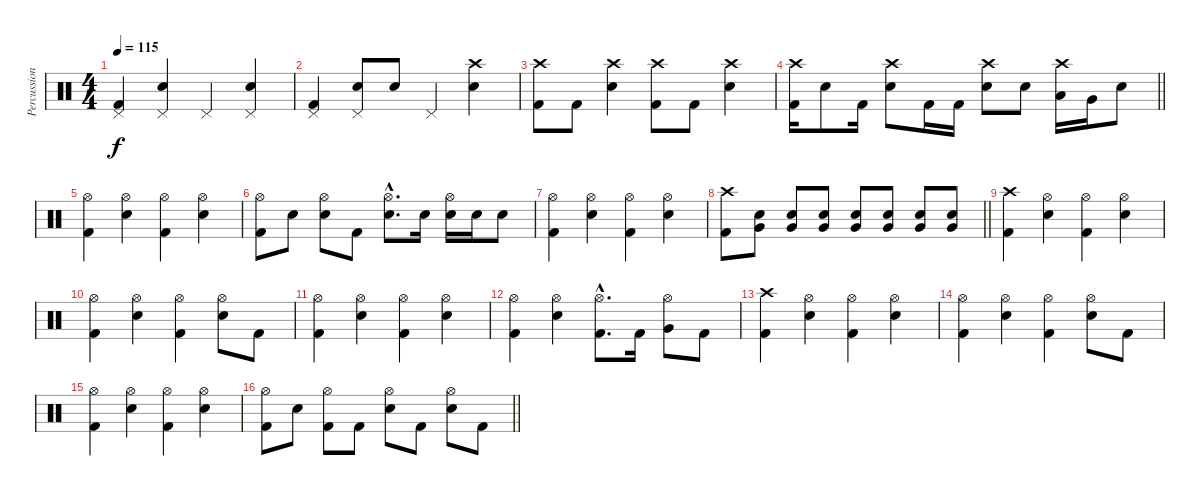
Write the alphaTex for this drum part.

\track ("Percussion" "Percussion") {instrument percussion}
\staff {score}
\articulation defaults
\ts (4 4)
\tempo 115
\clef neutral
\ks c
("Pedal Hi-Hat (hit)" "Kick (hit) 2").4{dy f} ("Pedal Hi-Hat (hit)" "Snare (hit) 2").4 "Pedal Hi-Hat (hit)".4 ("Pedal Hi-Hat (hit)" "Snare (hit) 2").4 |
("Pedal Hi-Hat (hit)" "Kick (hit) 2").4 ("Pedal Hi-Hat (hit)" "Snare (hit) 2").8 "Snare (hit) 2".8 "Pedal Hi-Hat (hit)".4 ("Crash high (hit)" "Snare (hit) 2").4 |
("Crash high (hit)" "Kick (hit) 2").8 "Kick (hit) 2".8 ("Crash high (hit)" "Snare (hit) 2").4 ("Crash high (hit)" "Kick (hit) 2").8 "Kick (hit) 2".8 ("Crash high (hit)" "Snare (hit) 2").4 |
\barLineRight lightlight
("Crash high (hit)" "Kick (hit) 2").16 "Snare (hit) 2".8 "Kick (hit) 2".16 ("Crash high (hit)" "Snare (hit) 2").8 "Kick (hit) 2".16 "Kick (hit) 2".16 ("Crash high (hit)" "Snare (hit) 2").8 "Snare (hit) 2".8 ("Crash high (hit)" "Low Tom (hit)").16 "Very Low Tom (hit)".16 "Snare (hit) 2".8 |
("Hi-Hat (open)" "Kick (hit) 2").4 ("Hi-Hat (open)" "Snare (hit) 2").4 ("Hi-Hat (open)" "Kick (hit) 2").4 ("Hi-Hat (open)" "Snare (hit) 2").4 |
("Hi-Hat (open)" "Kick (hit) 2").8 "Snare (hit) 2".8 ("Hi-Hat (open)" "Snare (hit) 2").8 "Kick (hit) 2".8 ("Hi-Hat (open)"{hac} "Snare (hit) 2"{hac}).8{d} "Snare (hit) 2".16 ("Hi-Hat (open)" "Snare (hit) 2").16 "Snare (hit) 2".16 "Snare (hit) 2".8 |
("Hi-Hat (open)" "Kick (hit) 2").4 ("Hi-Hat (open)" "Snare (hit) 2").4 ("Hi-Hat (open)" "Kick (hit) 2").4 ("Hi-Hat (open)" "Snare (hit) 2").4 |
\barLineRight lightlight
("Crash high (hit)" "Kick (hit) 2").8 ("Very Low Tom (hit)" "Snare (hit) 2").8 ("Very Low Tom (hit)" "Snare (hit) 2").8 ("Very Low Tom (hit)" "Snare (hit) 2").8 ("Very Low Tom (hit)" "Snare (hit) 2").8 ("Very Low Tom (hit)" "Snare (hit) 2").8 ("Very Low Tom (hit)" "Snare (hit) 2").8 ("Very Low Tom (hit)" "Snare (hit) 2").8 |
("Crash high (hit)" "Kick (hit) 2").4 ("Hi-Hat (open)" "Snare (hit) 2").4 ("Hi-Hat (open)" "Kick (hit) 2").4 ("Hi-Hat (open)" "Snare (hit) 2").4 |
("Hi-Hat (open)" "Kick (hit) 2").4 ("Hi-Hat (open)" "Snare (hit) 2").4 ("Hi-Hat (open)" "Kick (hit) 2").4 ("Hi-Hat (open)" "Snare (hit) 2").8 "Kick (hit) 2".8 |
("Hi-Hat (open)" "Kick (hit) 2").4 ("Hi-Hat (open)" "Snare (hit) 2").4 ("Hi-Hat (open)" "Kick (hit) 2").4 ("Hi-Hat (open)" "Snare (hit) 2").4 |
("Hi-Hat (open)" "Kick (hit) 2").4 ("Hi-Hat (open)" "Snare (hit) 2").4 ("Hi-Hat (open)"{hac} "Kick (hit) 2"{hac}).8{d} "Kick (hit) 2".16 ("Hi-Hat (open)" "Very Low Tom (hit)").8 "Kick (hit) 2".8 |
("Crash high (hit)" "Kick (hit) 2").4 ("Hi-Hat (open)" "Snare (hit) 2").4 ("Hi-Hat (open)" "Kick (hit) 2").4 ("Hi-Hat (open)" "Snare (hit) 2").4 |
("Hi-Hat (open)" "Kick (hit) 2").4 ("Hi-Hat (open)" "Snare (hit) 2").4 ("Hi-Hat (open)" "Kick (hit) 2").4 ("Hi-Hat (open)" "Snare (hit) 2").8 "Kick (hit) 2".8 |
("Hi-Hat (open)" "Kick (hit) 2").4 ("Hi-Hat (open)" "Snare (hit) 2").4 ("Hi-Hat (open)" "Kick (hit) 2").4 ("Hi-Hat (open)" "Snare (hit) 2").4 |
\barLineRight lightlight
("Hi-Hat (open)" "Kick (hit) 2").8 "Snare (hit) 2".8 ("Hi-Hat (open)" "Kick (hit) 2").8 "Kick (hit) 2".8 ("Hi-Hat (open)" "Snare (hit) 2").8 "Kick (hit) 2".8 ("Hi-Hat (open)" "Snare (hit) 2").8 "Kick (hit) 2".8
